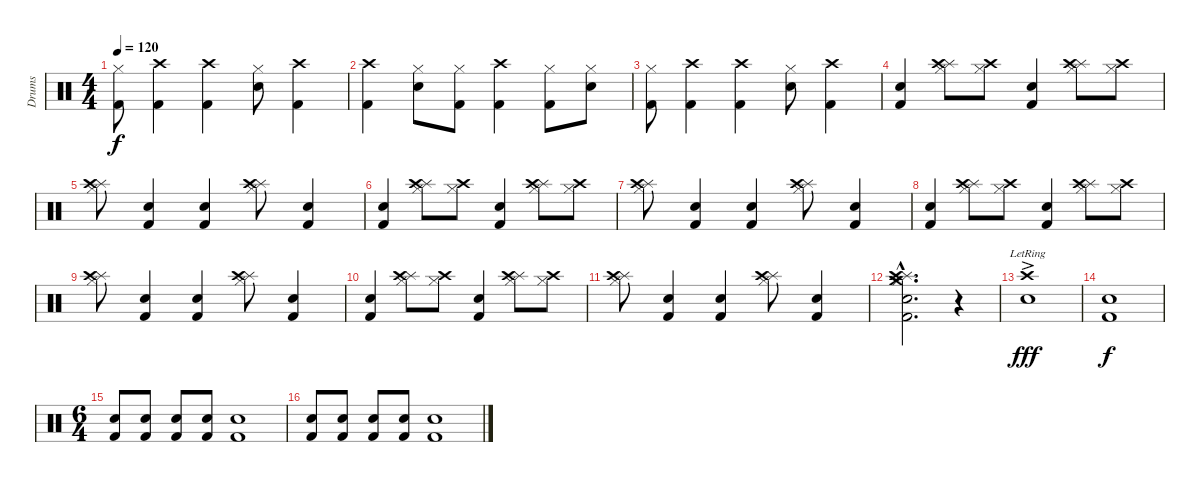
\track ("Drums" "Drums") {instrument percussion}
\staff {score}
\articulation defaults
\ts (4 4)
\tempo 120
\clef neutral
\ks c
("Hi-Hat (closed)" "Kick (hit) 2").8{dy f} ("Crash high (hit)" "Kick (hit) 2").4 ("Crash high (hit)" "Kick (hit) 2").4 ("Hi-Hat (closed)" "Electric Snare (hit)").8 ("Crash high (hit)" "Kick (hit) 2").4 |
("Crash high (hit)" "Kick (hit) 2").4 ("Hi-Hat (closed)" "Electric Snare (hit)").8 ("Hi-Hat (closed)" "Kick (hit) 2").8 ("Crash high (hit)" "Kick (hit) 2").4 ("Hi-Hat (closed)" "Kick (hit) 2").8 ("Hi-Hat (closed)" "Electric Snare (hit)").8 |
("Hi-Hat (closed)" "Kick (hit) 2").8 ("Crash high (hit)" "Kick (hit) 2").4 ("Crash high (hit)" "Kick (hit) 2").4 ("Hi-Hat (closed)" "Electric Snare (hit)").8 ("Crash high (hit)" "Kick (hit) 2").4 |
("Electric Snare (hit)" "Kick (hit) 2").4 ("Splash (hit)" "Crash high (hit)" "Hi-Hat (closed)").8 ("Crash high (hit)" "Hi-Hat (closed)").8 ("Electric Snare (hit)" "Kick (hit) 2").4 ("Splash (hit)" "Crash high (hit)" "Hi-Hat (closed)").8 ("Crash high (hit)" "Hi-Hat (closed)").8 |
("Splash (hit)" "Crash high (hit)" "Hi-Hat (closed)").8 ("Electric Snare (hit)" "Kick (hit) 2").4 ("Electric Snare (hit)" "Kick (hit) 2").4 ("Splash (hit)" "Crash high (hit)" "Hi-Hat (closed)").8 ("Electric Snare (hit)" "Kick (hit) 2").4 |
("Electric Snare (hit)" "Kick (hit) 2").4 ("Splash (hit)" "Crash high (hit)" "Hi-Hat (closed)").8 ("Crash high (hit)" "Hi-Hat (closed)").8 ("Electric Snare (hit)" "Kick (hit) 2").4 ("Splash (hit)" "Crash high (hit)" "Hi-Hat (closed)").8 ("Crash high (hit)" "Hi-Hat (closed)").8 |
("Splash (hit)" "Crash high (hit)" "Hi-Hat (closed)").8 ("Electric Snare (hit)" "Kick (hit) 2").4 ("Electric Snare (hit)" "Kick (hit) 2").4 ("Splash (hit)" "Crash high (hit)" "Hi-Hat (closed)").8 ("Electric Snare (hit)" "Kick (hit) 2").4 |
("Electric Snare (hit)" "Kick (hit) 2").4 ("Splash (hit)" "Crash high (hit)" "Hi-Hat (closed)").8 ("Crash high (hit)" "Hi-Hat (closed)").8 ("Electric Snare (hit)" "Kick (hit) 2").4 ("Splash (hit)" "Crash high (hit)" "Hi-Hat (closed)").8 ("Crash high (hit)" "Hi-Hat (closed)").8 |
("Splash (hit)" "Crash high (hit)" "Hi-Hat (closed)").8 ("Electric Snare (hit)" "Kick (hit) 2").4 ("Electric Snare (hit)" "Kick (hit) 2").4 ("Splash (hit)" "Crash high (hit)" "Hi-Hat (closed)").8 ("Electric Snare (hit)" "Kick (hit) 2").4 |
("Electric Snare (hit)" "Kick (hit) 2").4 ("Splash (hit)" "Crash high (hit)" "Hi-Hat (closed)").8 ("Crash high (hit)" "Hi-Hat (closed)").8 ("Electric Snare (hit)" "Kick (hit) 2").4 ("Splash (hit)" "Crash high (hit)" "Hi-Hat (closed)").8 ("Crash high (hit)" "Hi-Hat (closed)").8 |
("Splash (hit)" "Crash high (hit)" "Hi-Hat (closed)").8 ("Electric Snare (hit)" "Kick (hit) 2").4 ("Electric Snare (hit)" "Kick (hit) 2").4 ("Splash (hit)" "Crash high (hit)" "Hi-Hat (closed)").8 ("Electric Snare (hit)" "Kick (hit) 2").4 |
("Crash medium (hit)"{hac} "Splash (hit)"{hac} "Crash high (hit)"{hac} "Hi-Hat (closed)"{hac} "Electric Snare (hit)"{hac} "Kick (hit) 2"{hac}).2{d} r.4 |
("Crash high (hit)"{ac lr} "Electric Snare (hit)"{ac lr}).1{dy fff} |
("Electric Snare (hit)" "Kick (hit) 2").1{dy f} |
\ts (6 4)
("Electric Snare (hit)" "Kick (hit) 2").8 ("Electric Snare (hit)" "Kick (hit) 2").8 ("Electric Snare (hit)" "Kick (hit) 2").8 ("Electric Snare (hit)" "Kick (hit) 2").8 ("Kick (hit) 2" "Electric Snare (hit)").1 |
("Electric Snare (hit)" "Kick (hit) 2").8 ("Electric Snare (hit)" "Kick (hit) 2").8 ("Electric Snare (hit)" "Kick (hit) 2").8 ("Electric Snare (hit)" "Kick (hit) 2").8 ("Kick (hit) 2" "Electric Snare (hit)").1
